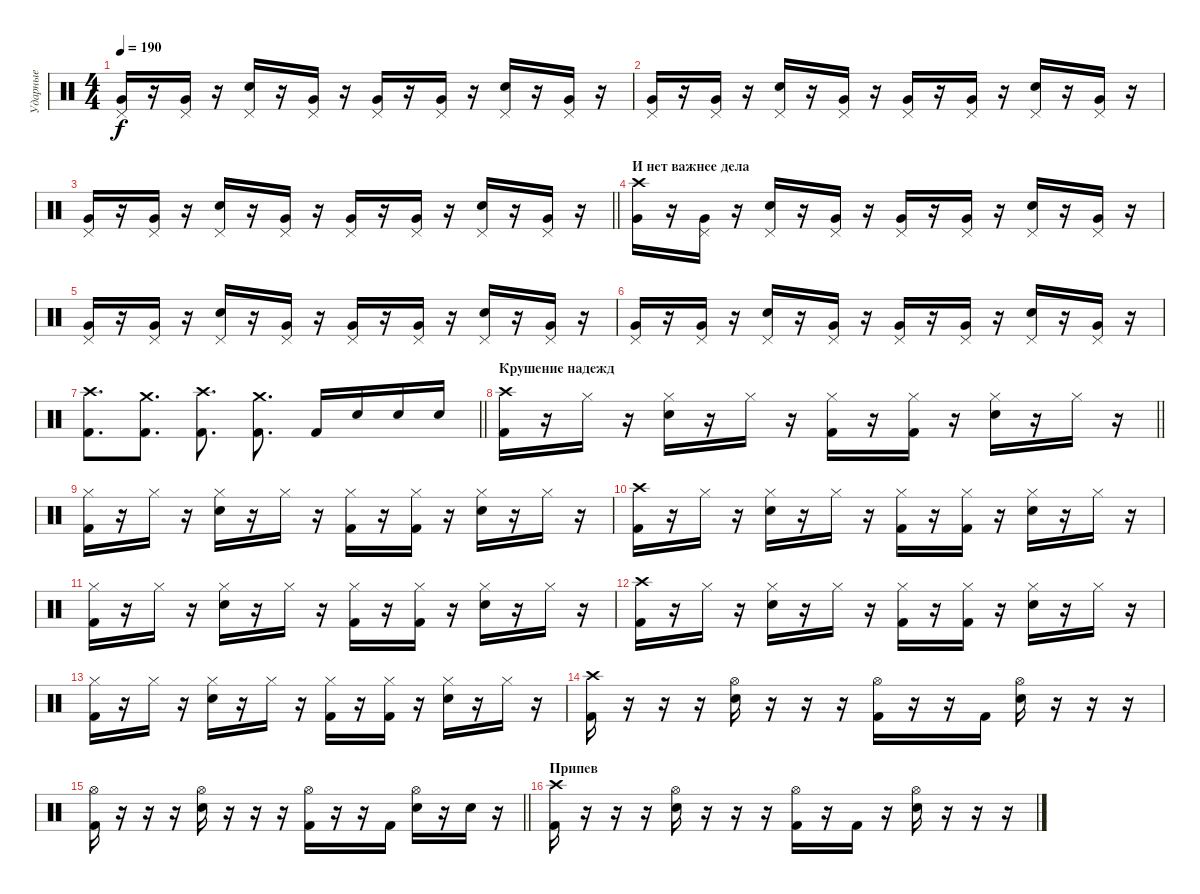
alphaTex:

\track ("Ударные" "Ударные") {instrument percussion}
\staff {score}
\articulation defaults
\ts (4 4)
\tempo 190
\clef neutral
\ks c
("Very Low Tom (hit)" "Pedal Hi-Hat (hit)").16{dy f} r.16 ("Very Low Tom (hit)" "Pedal Hi-Hat (hit)").16 r.16 ("Electric Snare (hit)" "Pedal Hi-Hat (hit)").16 r.16 ("Very Low Tom (hit)" "Pedal Hi-Hat (hit)").16 r.16 ("Very Low Tom (hit)" "Pedal Hi-Hat (hit)").16 r.16 ("Very Low Tom (hit)" "Pedal Hi-Hat (hit)").16 r.16 ("Electric Snare (hit)" "Pedal Hi-Hat (hit)").16 r.16 ("Very Low Tom (hit)" "Pedal Hi-Hat (hit)").16 r.16 |
("Very Low Tom (hit)" "Pedal Hi-Hat (hit)").16 r.16 ("Very Low Tom (hit)" "Pedal Hi-Hat (hit)").16 r.16 ("Electric Snare (hit)" "Pedal Hi-Hat (hit)").16 r.16 ("Very Low Tom (hit)" "Pedal Hi-Hat (hit)").16 r.16 ("Very Low Tom (hit)" "Pedal Hi-Hat (hit)").16 r.16 ("Very Low Tom (hit)" "Pedal Hi-Hat (hit)").16 r.16 ("Electric Snare (hit)" "Pedal Hi-Hat (hit)").16 r.16 ("Very Low Tom (hit)" "Pedal Hi-Hat (hit)").16 r.16 |
\barLineRight lightlight
("Very Low Tom (hit)" "Pedal Hi-Hat (hit)").16 r.16 ("Very Low Tom (hit)" "Pedal Hi-Hat (hit)").16 r.16 ("Electric Snare (hit)" "Pedal Hi-Hat (hit)").16 r.16 ("Very Low Tom (hit)" "Pedal Hi-Hat (hit)").16 r.16 ("Very Low Tom (hit)" "Pedal Hi-Hat (hit)").16 r.16 ("Very Low Tom (hit)" "Pedal Hi-Hat (hit)").16 r.16 ("Electric Snare (hit)" "Pedal Hi-Hat (hit)").16 r.16 ("Very Low Tom (hit)" "Pedal Hi-Hat (hit)").16 r.16 |
\section ("" "И нет важнее дела")
("Very Low Tom (hit)" "Crash high (hit)").16 r.16 ("Very Low Tom (hit)" "Pedal Hi-Hat (hit)").16 r.16 ("Electric Snare (hit)" "Pedal Hi-Hat (hit)").16 r.16 ("Very Low Tom (hit)" "Pedal Hi-Hat (hit)").16 r.16 ("Very Low Tom (hit)" "Pedal Hi-Hat (hit)").16 r.16 ("Very Low Tom (hit)" "Pedal Hi-Hat (hit)").16 r.16 ("Electric Snare (hit)" "Pedal Hi-Hat (hit)").16 r.16 ("Very Low Tom (hit)" "Pedal Hi-Hat (hit)").16 r.16 |
("Very Low Tom (hit)" "Pedal Hi-Hat (hit)").16 r.16 ("Very Low Tom (hit)" "Pedal Hi-Hat (hit)").16 r.16 ("Electric Snare (hit)" "Pedal Hi-Hat (hit)").16 r.16 ("Very Low Tom (hit)" "Pedal Hi-Hat (hit)").16 r.16 ("Very Low Tom (hit)" "Pedal Hi-Hat (hit)").16 r.16 ("Very Low Tom (hit)" "Pedal Hi-Hat (hit)").16 r.16 ("Electric Snare (hit)" "Pedal Hi-Hat (hit)").16 r.16 ("Very Low Tom (hit)" "Pedal Hi-Hat (hit)").16 r.16 |
("Very Low Tom (hit)" "Pedal Hi-Hat (hit)").16 r.16 ("Very Low Tom (hit)" "Pedal Hi-Hat (hit)").16 r.16 ("Electric Snare (hit)" "Pedal Hi-Hat (hit)").16 r.16 ("Very Low Tom (hit)" "Pedal Hi-Hat (hit)").16 r.16 ("Very Low Tom (hit)" "Pedal Hi-Hat (hit)").16 r.16 ("Very Low Tom (hit)" "Pedal Hi-Hat (hit)").16 r.16 ("Electric Snare (hit)" "Pedal Hi-Hat (hit)").16 r.16 ("Very Low Tom (hit)" "Pedal Hi-Hat (hit)").16 r.16 |
\barLineRight lightlight
("Crash high (hit)" "Kick (hit) 2").8{d} ("Crash medium (hit)" "Kick (hit) 2").8{d} ("Crash high (hit)" "Kick (hit) 2").8{d} ("Crash medium (hit)" "Kick (hit) 2").8{d} "Kick (hit) 2".16 "Snare (hit) 2".16 "Snare (hit) 2".16 "Electric Snare (hit)".16 |
\section ("" "Крушение надежд")
\barLineRight lightlight
("Crash high (hit)" "Kick (hit) 2").16 r.16 "Hi-Hat (closed)".16 r.16 ("Hi-Hat (closed)" "Electric Snare (hit)").16 r.16 "Hi-Hat (closed)".16 r.16 ("Hi-Hat (closed)" "Kick (hit) 2").16 r.16 ("Hi-Hat (closed)" "Kick (hit) 2").16 r.16 ("Hi-Hat (closed)" "Electric Snare (hit)").16 r.16 "Hi-Hat (closed)".16 r.16 |
\section ("" "")
("Hi-Hat (closed)" "Kick (hit) 2").16 r.16 "Hi-Hat (closed)".16 r.16 ("Hi-Hat (closed)" "Electric Snare (hit)").16 r.16 "Hi-Hat (closed)".16 r.16 ("Hi-Hat (closed)" "Kick (hit) 2").16 r.16 ("Hi-Hat (closed)" "Kick (hit) 2").16 r.16 ("Hi-Hat (closed)" "Electric Snare (hit)").16 r.16 "Hi-Hat (closed)".16 r.16 |
("Crash high (hit)" "Kick (hit) 2").16 r.16 "Hi-Hat (closed)".16 r.16 ("Hi-Hat (closed)" "Electric Snare (hit)").16 r.16 "Hi-Hat (closed)".16 r.16 ("Hi-Hat (closed)" "Kick (hit) 2").16 r.16 ("Hi-Hat (closed)" "Kick (hit) 2").16 r.16 ("Hi-Hat (closed)" "Electric Snare (hit)").16 r.16 "Hi-Hat (closed)".16 r.16 |
("Hi-Hat (closed)" "Kick (hit) 2").16 r.16 "Hi-Hat (closed)".16 r.16 ("Hi-Hat (closed)" "Electric Snare (hit)").16 r.16 "Hi-Hat (closed)".16 r.16 ("Hi-Hat (closed)" "Kick (hit) 2").16 r.16 ("Hi-Hat (closed)" "Kick (hit) 2").16 r.16 ("Hi-Hat (closed)" "Electric Snare (hit)").16 r.16 "Hi-Hat (closed)".16 r.16 |
("Crash high (hit)" "Kick (hit) 2").16 r.16 "Hi-Hat (closed)".16 r.16 ("Hi-Hat (closed)" "Electric Snare (hit)").16 r.16 "Hi-Hat (closed)".16 r.16 ("Hi-Hat (closed)" "Kick (hit) 2").16 r.16 ("Hi-Hat (closed)" "Kick (hit) 2").16 r.16 ("Hi-Hat (closed)" "Electric Snare (hit)").16 r.16 "Hi-Hat (closed)".16 r.16 |
("Hi-Hat (closed)" "Kick (hit) 2").16 r.16 "Hi-Hat (closed)".16 r.16 ("Hi-Hat (closed)" "Electric Snare (hit)").16 r.16 "Hi-Hat (closed)".16 r.16 ("Hi-Hat (closed)" "Kick (hit) 2").16 r.16 ("Hi-Hat (closed)" "Kick (hit) 2").16 r.16 ("Hi-Hat (closed)" "Electric Snare (hit)").16 r.16 "Hi-Hat (closed)".16 r.16 |
("Crash high (hit)" "Kick (hit) 2").16 r.16 r.16 r.16 ("Hi-Hat (open)" "Electric Snare (hit)").16 r.16 r.16 r.16 ("Hi-Hat (open)" "Kick (hit) 2").16 r.16 r.16 "Kick (hit) 2".16 ("Hi-Hat (open)" "Electric Snare (hit)").16 r.16 r.16 r.16 |
\barLineRight lightlight
("Hi-Hat (open)" "Kick (hit) 2").16 r.16 r.16 r.16 ("Hi-Hat (open)" "Electric Snare (hit)").16 r.16 r.16 r.16 ("Hi-Hat (open)" "Kick (hit) 2").16 r.16 r.16 "Kick (hit) 2".16 ("Hi-Hat (open)" "Electric Snare (hit)").16 r.16 "Snare (hit) 2".16 r.16 |
\section ("" "Припев")
("Crash high (hit)" "Kick (hit) 2").16 r.16 r.16 r.16 ("Electric Snare (hit)" "Hi-Hat (open)").16 r.16 r.16 r.16 ("Kick (hit) 2" "Hi-Hat (open)").16 r.16 "Kick (hit) 2".16 r.16 ("Electric Snare (hit)" "Hi-Hat (open)").16 r.16 r.16 r.16
